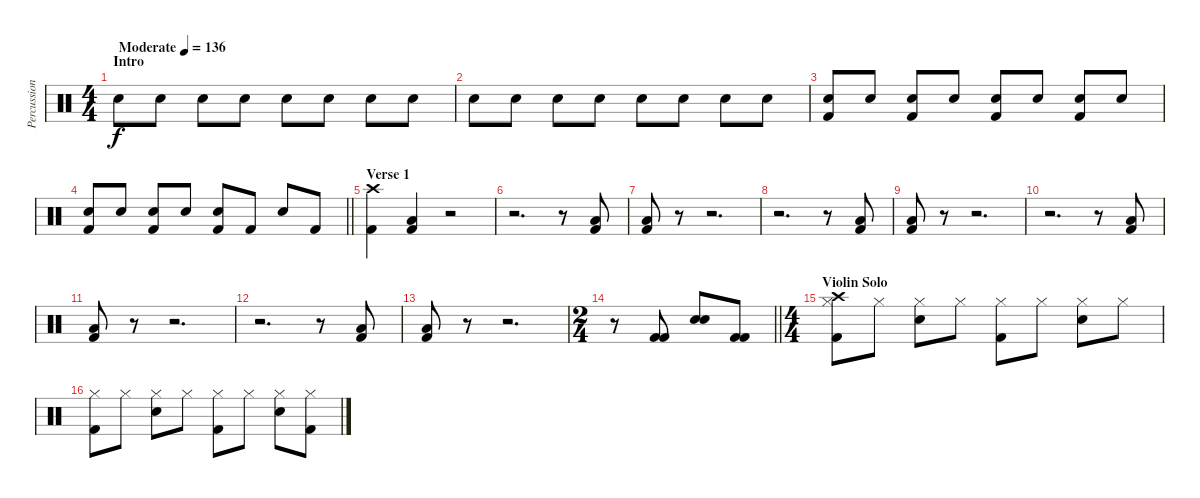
\track ("Percussioni" "Percussion") {instrument percussion}
\staff {score}
\articulation defaults
\ts (4 4)
\section ("" "Intro")
\tempo (136 "Moderate")
\clef neutral
\ks c "Snare (hit) 2".8{dy f volume 8} "Snare (hit) 2".8{volume 13} "Snare (hit) 2".8 "Snare (hit) 2".8 "Snare (hit) 2".8 "Snare (hit) 2".8 "Snare (hit) 2".8 "Snare (hit) 2".8
|
"Snare (hit) 2".8 "Snare (hit) 2".8 "Snare (hit) 2".8 "Snare (hit) 2".8 "Snare (hit) 2".8 "Snare (hit) 2".8 "Snare (hit) 2".8 "Snare (hit) 2".8 |
("Snare (hit) 2" "Kick (hit) 2").8 "Snare (hit) 2".8 ("Snare (hit) 2" "Kick (hit) 2").8 "Snare (hit) 2".8 ("Snare (hit) 2" "Kick (hit) 2").8 "Snare (hit) 2".8 ("Snare (hit) 2" "Kick (hit) 2").8 "Snare (hit) 2".8 |
\barLineRight lightlight
("Snare (hit) 2" "Kick (hit) 2").8 "Snare (hit) 2".8 ("Snare (hit) 2" "Kick (hit) 2").8 "Snare (hit) 2".8 ("Snare (hit) 2" "Kick (hit) 2").8 "Kick (hit) 2".8 "Snare (hit) 2".8 "Kick (hit) 2".8 |
\section ("" "Verse 1")
("Kick (hit) 2" "Crash high (hit)").4 ("Kick (hit) 2" "Low Tom (hit)").4 r.2 |
r.2{d} r.8 ("Kick (hit) 2" "Low Tom (hit)").8 |
("Kick (hit) 2" "Low Tom (hit)").8 r.8 r.2{d} |
r.2{d} r.8 ("Kick (hit) 2" "Low Tom (hit)").8 |
("Kick (hit) 2" "Low Tom (hit)").8 r.8 r.2{d} |
r.2{d} r.8 ("Kick (hit) 2" "Low Tom (hit)").8 |
("Kick (hit) 2" "Low Tom (hit)").8 r.8 r.2{d} |
r.2{d} r.8 ("Kick (hit) 2" "Low Tom (hit)").8 |
("Kick (hit) 2" "Low Tom (hit)").8 r.8 r.2{d} |
\ts (2 4)
\barLineRight lightlight
r.8 ("Kick (hit) 2" "Kick (hit) 2").8 ("Snare (hit) 2" "Snare (hit) 2").8 ("Kick (hit) 2" "Kick (hit) 2").8 |
\ts (4 4)
\section ("" "Violin Solo")
("Kick (hit) 2" "Hi-Hat (closed)" "Crash high (hit)").8 "Hi-Hat (closed)".8 ("Snare (hit) 2" "Hi-Hat (closed)").8 "Hi-Hat (closed)".8 ("Kick (hit) 2" "Hi-Hat (closed)").8 "Hi-Hat (closed)".8 ("Snare (hit) 2" "Hi-Hat (closed)").8 "Hi-Hat (closed)".8 |
("Kick (hit) 2" "Hi-Hat (closed)").8 "Hi-Hat (closed)".8 ("Snare (hit) 2" "Hi-Hat (closed)").8 "Hi-Hat (closed)".8 ("Kick (hit) 2" "Hi-Hat (closed)").8 "Hi-Hat (closed)".8 ("Snare (hit) 2" "Hi-Hat (closed)").8 ("Kick (hit) 2" "Hi-Hat (closed)").8
